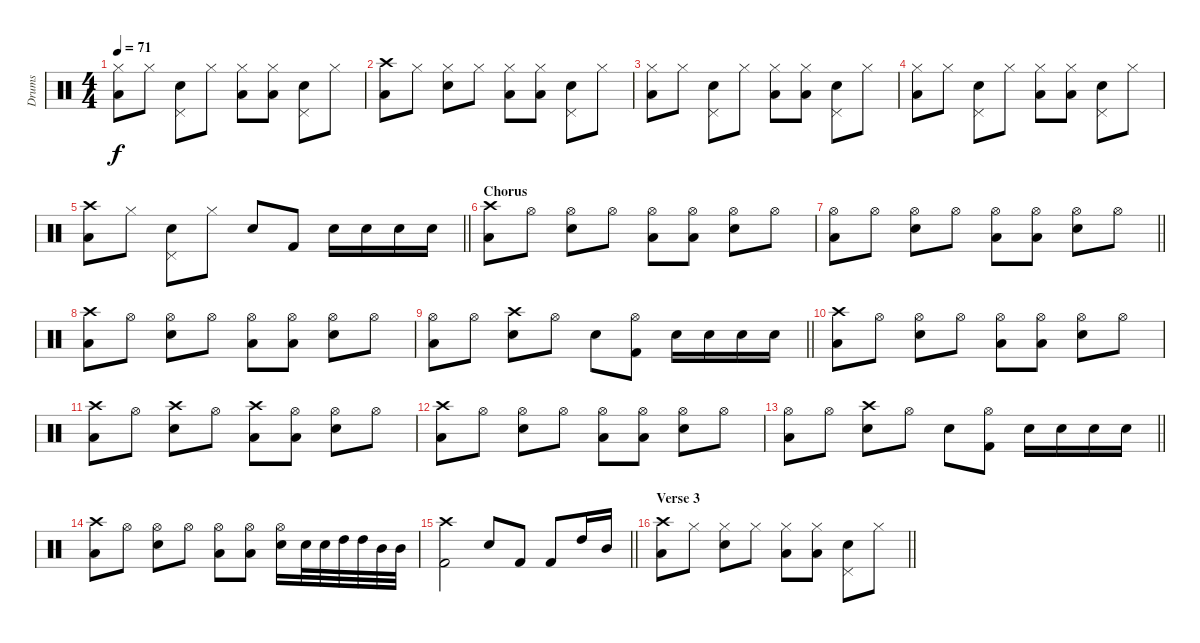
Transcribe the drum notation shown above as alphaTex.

\track ("Drums" "Drums") {instrument percussion}
\staff {score}
\articulation defaults
\ts (4 4)
\tempo 71
\clef neutral
\ks c
("Low Floor Tom (hit)" "Hi-Hat (closed)").8{dy f} "Hi-Hat (closed)".8 ("Pedal Hi-Hat (hit)" "Snare (hit) 2").8 "Hi-Hat (closed)".8 ("Hi-Hat (closed)" "Low Floor Tom (hit)").8 ("Hi-Hat (closed)" "Low Floor Tom (hit)").8 ("Pedal Hi-Hat (hit)" "Snare (hit) 2").8 "Hi-Hat (closed)".8 |
("Crash high (hit)" "Low Floor Tom (hit)").8 "Hi-Hat (closed)".8 ("Hi-Hat (closed)" "Snare (hit) 2").8 "Hi-Hat (closed)".8 ("Low Floor Tom (hit)" "Hi-Hat (closed)").8 ("Hi-Hat (closed)" "Low Floor Tom (hit)").8 ("Pedal Hi-Hat (hit)" "Snare (hit) 2").8 "Hi-Hat (closed)".8 |
("Low Floor Tom (hit)" "Hi-Hat (closed)").8 "Hi-Hat (closed)".8 ("Pedal Hi-Hat (hit)" "Snare (hit) 2").8 "Hi-Hat (closed)".8 ("Hi-Hat (closed)" "Low Floor Tom (hit)").8 ("Hi-Hat (closed)" "Low Floor Tom (hit)").8 ("Pedal Hi-Hat (hit)" "Snare (hit) 2").8 "Hi-Hat (closed)".8 |
("Low Floor Tom (hit)" "Hi-Hat (closed)").8 "Hi-Hat (closed)".8 ("Pedal Hi-Hat (hit)" "Snare (hit) 2").8 "Hi-Hat (closed)".8 ("Hi-Hat (closed)" "Low Floor Tom (hit)").8 ("Hi-Hat (closed)" "Low Floor Tom (hit)").8 ("Pedal Hi-Hat (hit)" "Snare (hit) 2").8 "Hi-Hat (closed)".8 |
\barLineRight lightlight
("Crash high (hit)" "Low Floor Tom (hit)").8 "Hi-Hat (closed)".8 ("Pedal Hi-Hat (hit)" "Snare (hit) 2").8 "Hi-Hat (closed)".8 "Snare (hit) 2".8 "Kick (hit) 2".8 "Snare (hit) 2".16 "Snare (hit) 2".16 "Snare (hit) 2".16 "Snare (hit) 2".16 |
\section ("" "Chorus")
("Crash high (hit)" "Low Floor Tom (hit)").8 "Hi-Hat (open)".8 ("Hi-Hat (open)" "Snare (hit) 2").8 "Hi-Hat (open)".8 ("Hi-Hat (open)" "Low Floor Tom (hit)").8 ("Hi-Hat (open)" "Low Floor Tom (hit)").8 ("Hi-Hat (open)" "Snare (hit) 2").8 "Hi-Hat (open)".8 |
\barLineRight lightlight
("Hi-Hat (open)" "Low Floor Tom (hit)").8 "Hi-Hat (open)".8 ("Hi-Hat (open)" "Snare (hit) 2").8 "Hi-Hat (open)".8 ("Hi-Hat (open)" "Low Floor Tom (hit)").8 ("Hi-Hat (open)" "Low Floor Tom (hit)").8 ("Hi-Hat (open)" "Snare (hit) 2").8 "Hi-Hat (open)".8 |
("Crash high (hit)" "Low Floor Tom (hit)").8 "Hi-Hat (open)".8 ("Hi-Hat (open)" "Snare (hit) 2").8 "Hi-Hat (open)".8 ("Hi-Hat (open)" "Low Floor Tom (hit)").8 ("Hi-Hat (open)" "Low Floor Tom (hit)").8 ("Hi-Hat (open)" "Snare (hit) 2").8 "Hi-Hat (open)".8 |
\barLineRight lightlight
("Hi-Hat (open)" "Low Floor Tom (hit)").8 "Hi-Hat (open)".8 ("Crash high (hit)" "Snare (hit) 2").8 "Hi-Hat (open)".8 "Snare (hit) 2".8 ("Kick (hit) 2" "Hi-Hat (open)").8 "Snare (hit) 2".16 "Snare (hit) 2".16 "Snare (hit) 2".16 "Snare (hit) 2".16 |
("Crash high (hit)" "Low Floor Tom (hit)").8 "Hi-Hat (open)".8 ("Hi-Hat (open)" "Snare (hit) 2").8 "Hi-Hat (open)".8 ("Hi-Hat (open)" "Low Floor Tom (hit)").8 ("Hi-Hat (open)" "Low Floor Tom (hit)").8 ("Hi-Hat (open)" "Snare (hit) 2").8 "Hi-Hat (open)".8 |
("Crash high (hit)" "Low Floor Tom (hit)").8 "Hi-Hat (open)".8 ("Crash high (hit)" "Snare (hit) 2").8 "Hi-Hat (open)".8 ("Crash high (hit)" "Low Floor Tom (hit)").8 ("Hi-Hat (open)" "Low Floor Tom (hit)").8 ("Hi-Hat (open)" "Snare (hit) 2").8 "Hi-Hat (open)".8 |
("Crash high (hit)" "Low Floor Tom (hit)").8 "Hi-Hat (open)".8 ("Hi-Hat (open)" "Snare (hit) 2").8 "Hi-Hat (open)".8 ("Hi-Hat (open)" "Low Floor Tom (hit)").8 ("Hi-Hat (open)" "Low Floor Tom (hit)").8 ("Hi-Hat (open)" "Snare (hit) 2").8 "Hi-Hat (open)".8 |
\barLineRight lightlight
("Hi-Hat (open)" "Low Floor Tom (hit)").8 "Hi-Hat (open)".8 ("Crash high (hit)" "Snare (hit) 2").8 "Hi-Hat (open)".8 "Snare (hit) 2".8 ("Kick (hit) 2" "Hi-Hat (open)").8 "Snare (hit) 2".16 "Snare (hit) 2".16 "Snare (hit) 2".16 "Snare (hit) 2".16 |
("Crash high (hit)" "Low Floor Tom (hit)").8 "Hi-Hat (open)".8 ("Hi-Hat (open)" "Snare (hit) 2").8 "Hi-Hat (open)".8 ("Hi-Hat (open)" "Low Floor Tom (hit)").8 ("Hi-Hat (open)" "Low Floor Tom (hit)").8 ("Hi-Hat (open)" "Snare (hit) 2").16 "Snare (hit) 2".32 "Snare (hit) 2".32 "High Tom (hit)".32 "High Tom (hit)".32 "Mid Tom (hit)".32 "Mid Tom (hit)".32 |
\barLineRight lightlight
("Kick (hit) 2" "Crash high (hit)").2 "Snare (hit) 2".8 "Kick (hit) 2".8 "Kick (hit) 2".8 "High Tom (hit)".16 "Mid Tom (hit)".16 |
\section ("" "Verse 3")
\barLineRight lightlight
("Crash high (hit)" "Low Floor Tom (hit)").8 "Hi-Hat (closed)".8 ("Hi-Hat (closed)" "Snare (hit) 2").8 "Hi-Hat (closed)".8 ("Low Floor Tom (hit)" "Hi-Hat (closed)").8 ("Hi-Hat (closed)" "Low Floor Tom (hit)").8 ("Pedal Hi-Hat (hit)" "Snare (hit) 2").8 "Hi-Hat (closed)".8
